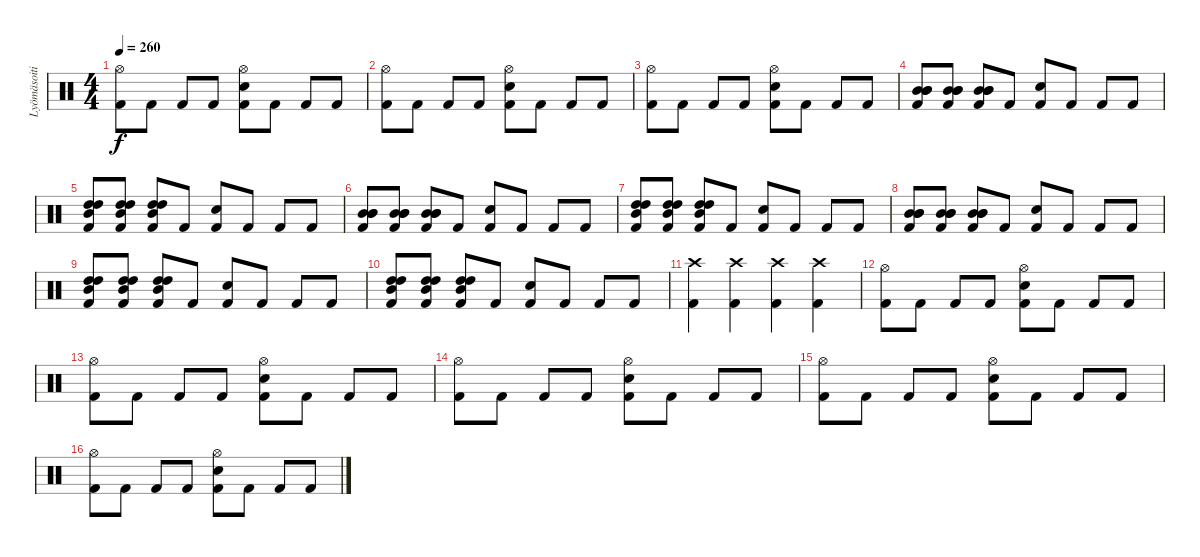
\track ("Lyömäsoitin" "Lyömäsoiti") {instrument percussion}
\staff {score}
\articulation defaults
\ts (4 4)
\tempo 260
\clef neutral
\ks c
("Hi-Hat (open)" "Kick (hit) 2").8{dy f} "Kick (hit) 2".8 "Kick (hit) 2".8 "Kick (hit) 2".8 ("Hi-Hat (open)" "Electric Snare (hit)" "Kick (hit) 2").8 "Kick (hit) 2".8 "Kick (hit) 2".8 "Kick (hit) 2".8 |
("Hi-Hat (open)" "Kick (hit) 2").8 "Kick (hit) 2".8 "Kick (hit) 2".8 "Kick (hit) 2".8 ("Hi-Hat (open)" "Electric Snare (hit)" "Kick (hit) 2").8 "Kick (hit) 2".8 "Kick (hit) 2".8 "Kick (hit) 2".8 |
("Hi-Hat (open)" "Kick (hit) 2").8 "Kick (hit) 2".8 "Kick (hit) 2".8 "Kick (hit) 2".8 ("Hi-Hat (open)" "Electric Snare (hit)" "Kick (hit) 2").8 "Kick (hit) 2".8 "Kick (hit) 2".8 "Kick (hit) 2".8 |
("Mid Tom (hit)" "Mid Tom (hit)" "Mid Tom (hit)" "Kick (hit) 2").8 ("Mid Tom (hit)" "Mid Tom (hit)" "Mid Tom (hit)" "Kick (hit) 2").8 ("Mid Tom (hit)" "Mid Tom (hit)" "Mid Tom (hit)" "Kick (hit) 2").8 "Kick (hit) 2".8 ("Electric Snare (hit)" "Kick (hit) 2").8 "Kick (hit) 2".8 "Kick (hit) 2".8 "Kick (hit) 2".8 |
("High Tom (hit)" "High Tom (hit)" "Mid Tom (hit)" "Kick (hit) 2").8 ("High Tom (hit)" "High Tom (hit)" "Mid Tom (hit)" "Kick (hit) 2").8 ("High Tom (hit)" "High Tom (hit)" "Mid Tom (hit)" "Kick (hit) 2").8 "Kick (hit) 2".8 ("Electric Snare (hit)" "Kick (hit) 2").8 "Kick (hit) 2".8 "Kick (hit) 2".8 "Kick (hit) 2".8 |
("Mid Tom (hit)" "Mid Tom (hit)" "Mid Tom (hit)" "Kick (hit) 2").8 ("Mid Tom (hit)" "Mid Tom (hit)" "Mid Tom (hit)" "Kick (hit) 2").8 ("Mid Tom (hit)" "Mid Tom (hit)" "Mid Tom (hit)" "Kick (hit) 2").8 "Kick (hit) 2".8 ("Electric Snare (hit)" "Kick (hit) 2").8 "Kick (hit) 2".8 "Kick (hit) 2".8 "Kick (hit) 2".8 |
("High Tom (hit)" "High Tom (hit)" "Mid Tom (hit)" "Kick (hit) 2").8 ("High Tom (hit)" "High Tom (hit)" "Mid Tom (hit)" "Kick (hit) 2").8 ("High Tom (hit)" "High Tom (hit)" "Mid Tom (hit)" "Kick (hit) 2").8 "Kick (hit) 2".8 ("Electric Snare (hit)" "Kick (hit) 2").8 "Kick (hit) 2".8 "Kick (hit) 2".8 "Kick (hit) 2".8 |
("Mid Tom (hit)" "Mid Tom (hit)" "Mid Tom (hit)" "Kick (hit) 2").8 ("Mid Tom (hit)" "Mid Tom (hit)" "Mid Tom (hit)" "Kick (hit) 2").8 ("Mid Tom (hit)" "Mid Tom (hit)" "Mid Tom (hit)" "Kick (hit) 2").8 "Kick (hit) 2".8 ("Electric Snare (hit)" "Kick (hit) 2").8 "Kick (hit) 2".8 "Kick (hit) 2".8 "Kick (hit) 2".8 |
("High Tom (hit)" "High Tom (hit)" "Mid Tom (hit)" "Kick (hit) 2").8 ("High Tom (hit)" "High Tom (hit)" "Mid Tom (hit)" "Kick (hit) 2").8 ("High Tom (hit)" "High Tom (hit)" "Mid Tom (hit)" "Kick (hit) 2").8 "Kick (hit) 2".8 ("Electric Snare (hit)" "Kick (hit) 2").8 "Kick (hit) 2".8 "Kick (hit) 2".8 "Kick (hit) 2".8 |
("High Tom (hit)" "High Tom (hit)" "Mid Tom (hit)" "Kick (hit) 2").8 ("High Tom (hit)" "High Tom (hit)" "Mid Tom (hit)" "Kick (hit) 2").8 ("High Tom (hit)" "High Tom (hit)" "Mid Tom (hit)" "Kick (hit) 2").8 "Kick (hit) 2".8 ("Electric Snare (hit)" "Kick (hit) 2").8 "Kick (hit) 2".8 "Kick (hit) 2".8 "Kick (hit) 2".8 |
("Crash high (hit)" "Kick (hit) 2").4 ("Crash high (hit)" "Kick (hit) 2").4 ("Crash high (hit)" "Kick (hit) 2").4 ("Crash high (hit)" "Kick (hit) 2").4 |
("Hi-Hat (open)" "Kick (hit) 2").8 "Kick (hit) 2".8 "Kick (hit) 2".8 "Kick (hit) 2".8 ("Hi-Hat (open)" "Electric Snare (hit)" "Kick (hit) 2").8 "Kick (hit) 2".8 "Kick (hit) 2".8 "Kick (hit) 2".8 |
("Hi-Hat (open)" "Kick (hit) 2").8 "Kick (hit) 2".8 "Kick (hit) 2".8 "Kick (hit) 2".8 ("Hi-Hat (open)" "Electric Snare (hit)" "Kick (hit) 2").8 "Kick (hit) 2".8 "Kick (hit) 2".8 "Kick (hit) 2".8 |
("Hi-Hat (open)" "Kick (hit) 2").8 "Kick (hit) 2".8 "Kick (hit) 2".8 "Kick (hit) 2".8 ("Hi-Hat (open)" "Electric Snare (hit)" "Kick (hit) 2").8 "Kick (hit) 2".8 "Kick (hit) 2".8 "Kick (hit) 2".8 |
("Hi-Hat (open)" "Kick (hit) 2").8 "Kick (hit) 2".8 "Kick (hit) 2".8 "Kick (hit) 2".8 ("Hi-Hat (open)" "Electric Snare (hit)" "Kick (hit) 2").8 "Kick (hit) 2".8 "Kick (hit) 2".8 "Kick (hit) 2".8 |
("Hi-Hat (open)" "Kick (hit) 2").8 "Kick (hit) 2".8 "Kick (hit) 2".8 "Kick (hit) 2".8 ("Hi-Hat (open)" "Electric Snare (hit)" "Kick (hit) 2").8 "Kick (hit) 2".8 "Kick (hit) 2".8 "Kick (hit) 2".8
